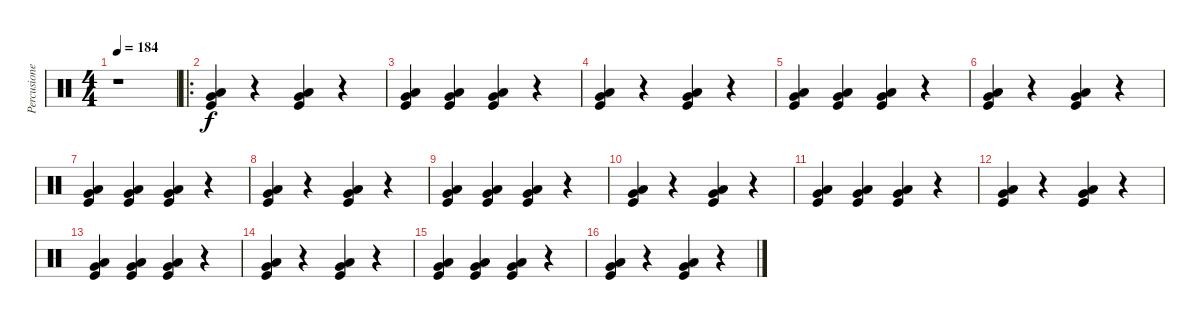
\track ("Percusiones" "Percusione") {instrument percussion}
\staff {score}
\articulation defaults
\ts (4 4)
\tempo 184
\clef neutral
\ks c
r.1{dy f} |
\ro
("Low Floor Tom (hit)" "Very Low Tom (hit)" "Kick (hit)").4 r.4 ("Low Floor Tom (hit)" "Very Low Tom (hit)" "Kick (hit)").4 r.4 |
("Low Floor Tom (hit)" "Very Low Tom (hit)" "Kick (hit)").4 ("Low Floor Tom (hit)" "Very Low Tom (hit)" "Kick (hit)").4 ("Low Floor Tom (hit)" "Very Low Tom (hit)" "Kick (hit)").4 r.4 |
("Low Floor Tom (hit)" "Very Low Tom (hit)" "Kick (hit)").4 r.4 ("Low Floor Tom (hit)" "Very Low Tom (hit)" "Kick (hit)").4 r.4 |
("Low Floor Tom (hit)" "Very Low Tom (hit)" "Kick (hit)").4 ("Low Floor Tom (hit)" "Very Low Tom (hit)" "Kick (hit)").4 ("Low Floor Tom (hit)" "Very Low Tom (hit)" "Kick (hit)").4 r.4 |
("Low Floor Tom (hit)" "Very Low Tom (hit)" "Kick (hit)").4 r.4 ("Low Floor Tom (hit)" "Very Low Tom (hit)" "Kick (hit)").4 r.4 |
("Low Floor Tom (hit)" "Very Low Tom (hit)" "Kick (hit)").4 ("Low Floor Tom (hit)" "Very Low Tom (hit)" "Kick (hit)").4 ("Low Floor Tom (hit)" "Very Low Tom (hit)" "Kick (hit)").4 r.4 |
("Low Floor Tom (hit)" "Very Low Tom (hit)" "Kick (hit)").4 r.4 ("Low Floor Tom (hit)" "Very Low Tom (hit)" "Kick (hit)").4 r.4 |
("Low Floor Tom (hit)" "Very Low Tom (hit)" "Kick (hit)").4 ("Low Floor Tom (hit)" "Very Low Tom (hit)" "Kick (hit)").4 ("Low Floor Tom (hit)" "Very Low Tom (hit)" "Kick (hit)").4 r.4 |
("Low Floor Tom (hit)" "Very Low Tom (hit)" "Kick (hit)").4 r.4 ("Low Floor Tom (hit)" "Very Low Tom (hit)" "Kick (hit)").4 r.4 |
("Low Floor Tom (hit)" "Very Low Tom (hit)" "Kick (hit)").4 ("Low Floor Tom (hit)" "Very Low Tom (hit)" "Kick (hit)").4 ("Low Floor Tom (hit)" "Very Low Tom (hit)" "Kick (hit)").4 r.4 |
("Low Floor Tom (hit)" "Very Low Tom (hit)" "Kick (hit)").4 r.4 ("Low Floor Tom (hit)" "Very Low Tom (hit)" "Kick (hit)").4 r.4 |
("Low Floor Tom (hit)" "Very Low Tom (hit)" "Kick (hit)").4 ("Low Floor Tom (hit)" "Very Low Tom (hit)" "Kick (hit)").4 ("Low Floor Tom (hit)" "Very Low Tom (hit)" "Kick (hit)").4 r.4 |
("Low Floor Tom (hit)" "Very Low Tom (hit)" "Kick (hit)").4 r.4 ("Low Floor Tom (hit)" "Very Low Tom (hit)" "Kick (hit)").4 r.4 |
("Low Floor Tom (hit)" "Very Low Tom (hit)" "Kick (hit)").4 ("Low Floor Tom (hit)" "Very Low Tom (hit)" "Kick (hit)").4 ("Low Floor Tom (hit)" "Very Low Tom (hit)" "Kick (hit)").4 r.4 |
("Low Floor Tom (hit)" "Very Low Tom (hit)" "Kick (hit)").4 r.4 ("Low Floor Tom (hit)" "Very Low Tom (hit)" "Kick (hit)").4 r.4
